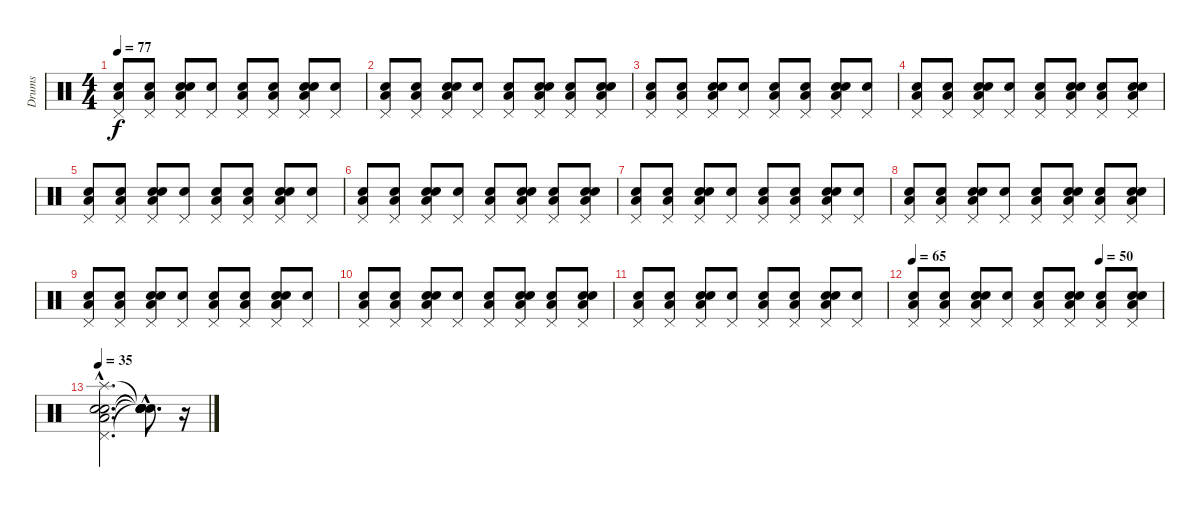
\track ("Drums" "Drums") {instrument percussion}
\staff {score}
\articulation defaults
\ts (4 4)
\tempo 77
\clef neutral
\ks c
("Snare (hit)" "Low Floor Tom (hit)" "Pedal Hi-Hat (hit)").8{dy f} ("Snare (hit)" "Low Floor Tom (hit)" "Pedal Hi-Hat (hit)").8 ("Snare (hit)" "Electric Snare (hit)" "Low Floor Tom (hit)" "Pedal Hi-Hat (hit)").8 ("Snare (hit)" "Pedal Hi-Hat (hit)").8 ("Snare (hit)" "Low Floor Tom (hit)" "Pedal Hi-Hat (hit)").8 ("Snare (hit)" "Low Floor Tom (hit)" "Pedal Hi-Hat (hit)").8 ("Snare (hit)" "Electric Snare (hit)" "Low Floor Tom (hit)" "Pedal Hi-Hat (hit)").8 ("Snare (hit)" "Pedal Hi-Hat (hit)").8 |
("Snare (hit)" "Low Floor Tom (hit)" "Pedal Hi-Hat (hit)").8 ("Snare (hit)" "Low Floor Tom (hit)" "Pedal Hi-Hat (hit)").8 ("Snare (hit)" "Electric Snare (hit)" "Low Floor Tom (hit)" "Pedal Hi-Hat (hit)").8 ("Snare (hit)" "Pedal Hi-Hat (hit)").8 ("Snare (hit)" "Low Floor Tom (hit)" "Pedal Hi-Hat (hit)").8 ("Snare (hit)" "Electric Snare (hit)" "Low Floor Tom (hit)" "Pedal Hi-Hat (hit)").8 ("Snare (hit)" "Low Floor Tom (hit)" "Pedal Hi-Hat (hit)").8 ("Snare (hit)" "Electric Snare (hit)" "Low Floor Tom (hit)" "Pedal Hi-Hat (hit)").8 |
("Snare (hit)" "Low Floor Tom (hit)" "Pedal Hi-Hat (hit)").8 ("Snare (hit)" "Low Floor Tom (hit)" "Pedal Hi-Hat (hit)").8 ("Snare (hit)" "Electric Snare (hit)" "Low Floor Tom (hit)" "Pedal Hi-Hat (hit)").8 ("Snare (hit)" "Pedal Hi-Hat (hit)").8 ("Snare (hit)" "Low Floor Tom (hit)" "Pedal Hi-Hat (hit)").8 ("Snare (hit)" "Low Floor Tom (hit)" "Pedal Hi-Hat (hit)").8 ("Snare (hit)" "Electric Snare (hit)" "Low Floor Tom (hit)" "Pedal Hi-Hat (hit)").8 ("Snare (hit)" "Pedal Hi-Hat (hit)").8 |
("Snare (hit)" "Low Floor Tom (hit)" "Pedal Hi-Hat (hit)").8 ("Snare (hit)" "Low Floor Tom (hit)" "Pedal Hi-Hat (hit)").8 ("Snare (hit)" "Electric Snare (hit)" "Low Floor Tom (hit)" "Pedal Hi-Hat (hit)").8 ("Snare (hit)" "Pedal Hi-Hat (hit)").8 ("Snare (hit)" "Low Floor Tom (hit)" "Pedal Hi-Hat (hit)").8 ("Snare (hit)" "Electric Snare (hit)" "Low Floor Tom (hit)" "Pedal Hi-Hat (hit)").8 ("Snare (hit)" "Low Floor Tom (hit)" "Pedal Hi-Hat (hit)").8 ("Snare (hit)" "Electric Snare (hit)" "Low Floor Tom (hit)" "Pedal Hi-Hat (hit)").8 |
("Snare (hit)" "Low Floor Tom (hit)" "Pedal Hi-Hat (hit)").8 ("Snare (hit)" "Low Floor Tom (hit)" "Pedal Hi-Hat (hit)").8 ("Snare (hit)" "Electric Snare (hit)" "Low Floor Tom (hit)" "Pedal Hi-Hat (hit)").8 ("Snare (hit)" "Pedal Hi-Hat (hit)").8 ("Snare (hit)" "Low Floor Tom (hit)" "Pedal Hi-Hat (hit)").8 ("Snare (hit)" "Low Floor Tom (hit)" "Pedal Hi-Hat (hit)").8 ("Snare (hit)" "Electric Snare (hit)" "Low Floor Tom (hit)" "Pedal Hi-Hat (hit)").8 ("Snare (hit)" "Pedal Hi-Hat (hit)").8 |
("Snare (hit)" "Low Floor Tom (hit)" "Pedal Hi-Hat (hit)").8 ("Snare (hit)" "Low Floor Tom (hit)" "Pedal Hi-Hat (hit)").8 ("Snare (hit)" "Electric Snare (hit)" "Low Floor Tom (hit)" "Pedal Hi-Hat (hit)").8 ("Snare (hit)" "Pedal Hi-Hat (hit)").8 ("Snare (hit)" "Low Floor Tom (hit)" "Pedal Hi-Hat (hit)").8 ("Snare (hit)" "Electric Snare (hit)" "Low Floor Tom (hit)" "Pedal Hi-Hat (hit)").8 ("Snare (hit)" "Low Floor Tom (hit)" "Pedal Hi-Hat (hit)").8 ("Snare (hit)" "Electric Snare (hit)" "Low Floor Tom (hit)" "Pedal Hi-Hat (hit)").8 |
("Snare (hit)" "Low Floor Tom (hit)" "Pedal Hi-Hat (hit)").8 ("Snare (hit)" "Low Floor Tom (hit)" "Pedal Hi-Hat (hit)").8 ("Snare (hit)" "Electric Snare (hit)" "Low Floor Tom (hit)" "Pedal Hi-Hat (hit)").8 ("Snare (hit)" "Pedal Hi-Hat (hit)").8 ("Snare (hit)" "Low Floor Tom (hit)" "Pedal Hi-Hat (hit)").8 ("Snare (hit)" "Low Floor Tom (hit)" "Pedal Hi-Hat (hit)").8 ("Snare (hit)" "Electric Snare (hit)" "Low Floor Tom (hit)" "Pedal Hi-Hat (hit)").8 ("Snare (hit)" "Pedal Hi-Hat (hit)").8 |
("Snare (hit)" "Low Floor Tom (hit)" "Pedal Hi-Hat (hit)").8 ("Snare (hit)" "Low Floor Tom (hit)" "Pedal Hi-Hat (hit)").8 ("Snare (hit)" "Electric Snare (hit)" "Low Floor Tom (hit)" "Pedal Hi-Hat (hit)").8 ("Snare (hit)" "Pedal Hi-Hat (hit)").8 ("Snare (hit)" "Low Floor Tom (hit)" "Pedal Hi-Hat (hit)").8 ("Snare (hit)" "Electric Snare (hit)" "Low Floor Tom (hit)" "Pedal Hi-Hat (hit)").8 ("Snare (hit)" "Low Floor Tom (hit)" "Pedal Hi-Hat (hit)").8 ("Snare (hit)" "Electric Snare (hit)" "Low Floor Tom (hit)" "Pedal Hi-Hat (hit)").8 |
("Snare (hit)" "Low Floor Tom (hit)" "Pedal Hi-Hat (hit)").8 ("Snare (hit)" "Low Floor Tom (hit)" "Pedal Hi-Hat (hit)").8 ("Snare (hit)" "Electric Snare (hit)" "Low Floor Tom (hit)" "Pedal Hi-Hat (hit)").8 ("Snare (hit)" "Pedal Hi-Hat (hit)").8 ("Snare (hit)" "Low Floor Tom (hit)" "Pedal Hi-Hat (hit)").8 ("Snare (hit)" "Low Floor Tom (hit)" "Pedal Hi-Hat (hit)").8 ("Snare (hit)" "Electric Snare (hit)" "Low Floor Tom (hit)" "Pedal Hi-Hat (hit)").8 ("Snare (hit)" "Pedal Hi-Hat (hit)").8 |
("Snare (hit)" "Low Floor Tom (hit)" "Pedal Hi-Hat (hit)").8 ("Snare (hit)" "Low Floor Tom (hit)" "Pedal Hi-Hat (hit)").8 ("Snare (hit)" "Electric Snare (hit)" "Low Floor Tom (hit)" "Pedal Hi-Hat (hit)").8 ("Snare (hit)" "Pedal Hi-Hat (hit)").8 ("Snare (hit)" "Low Floor Tom (hit)" "Pedal Hi-Hat (hit)").8 ("Snare (hit)" "Electric Snare (hit)" "Low Floor Tom (hit)" "Pedal Hi-Hat (hit)").8 ("Snare (hit)" "Low Floor Tom (hit)" "Pedal Hi-Hat (hit)").8 ("Snare (hit)" "Electric Snare (hit)" "Low Floor Tom (hit)" "Pedal Hi-Hat (hit)").8 |
("Snare (hit)" "Low Floor Tom (hit)" "Pedal Hi-Hat (hit)").8 ("Snare (hit)" "Low Floor Tom (hit)" "Pedal Hi-Hat (hit)").8 ("Snare (hit)" "Electric Snare (hit)" "Low Floor Tom (hit)" "Pedal Hi-Hat (hit)").8 ("Snare (hit)" "Pedal Hi-Hat (hit)").8 ("Snare (hit)" "Low Floor Tom (hit)" "Pedal Hi-Hat (hit)").8 ("Snare (hit)" "Low Floor Tom (hit)" "Pedal Hi-Hat (hit)").8 ("Snare (hit)" "Electric Snare (hit)" "Low Floor Tom (hit)" "Pedal Hi-Hat (hit)").8 ("Snare (hit)" "Pedal Hi-Hat (hit)").8 |
\tempo 65
\tempo (50 0.75)
("Snare (hit)" "Low Floor Tom (hit)" "Pedal Hi-Hat (hit)").8 ("Snare (hit)" "Low Floor Tom (hit)" "Pedal Hi-Hat (hit)").8 ("Snare (hit)" "Electric Snare (hit)" "Low Floor Tom (hit)" "Pedal Hi-Hat (hit)").8 ("Snare (hit)" "Pedal Hi-Hat (hit)").8 ("Snare (hit)" "Low Floor Tom (hit)" "Pedal Hi-Hat (hit)").8 ("Snare (hit)" "Electric Snare (hit)" "Low Floor Tom (hit)" "Pedal Hi-Hat (hit)").8 ("Snare (hit)" "Low Floor Tom (hit)" "Pedal Hi-Hat (hit)").8 ("Snare (hit)" "Electric Snare (hit)" "Low Floor Tom (hit)" "Pedal Hi-Hat (hit)").8 |
\tempo 35
("Snare (hit)"{hac} "Electric Snare (hit)"{hac} "Low Floor Tom (hit)"{hac} "Pedal Hi-Hat (hit)"{hac} "Splash (hit)"{hac}).2{d} ("Snare (hit)"{hac t} "Snare (hit)"{hac t} "Snare (hit)"{hac t} "Snare (hit)"{hac t} "Snare (hit)"{hac t}).8{d} r.16
